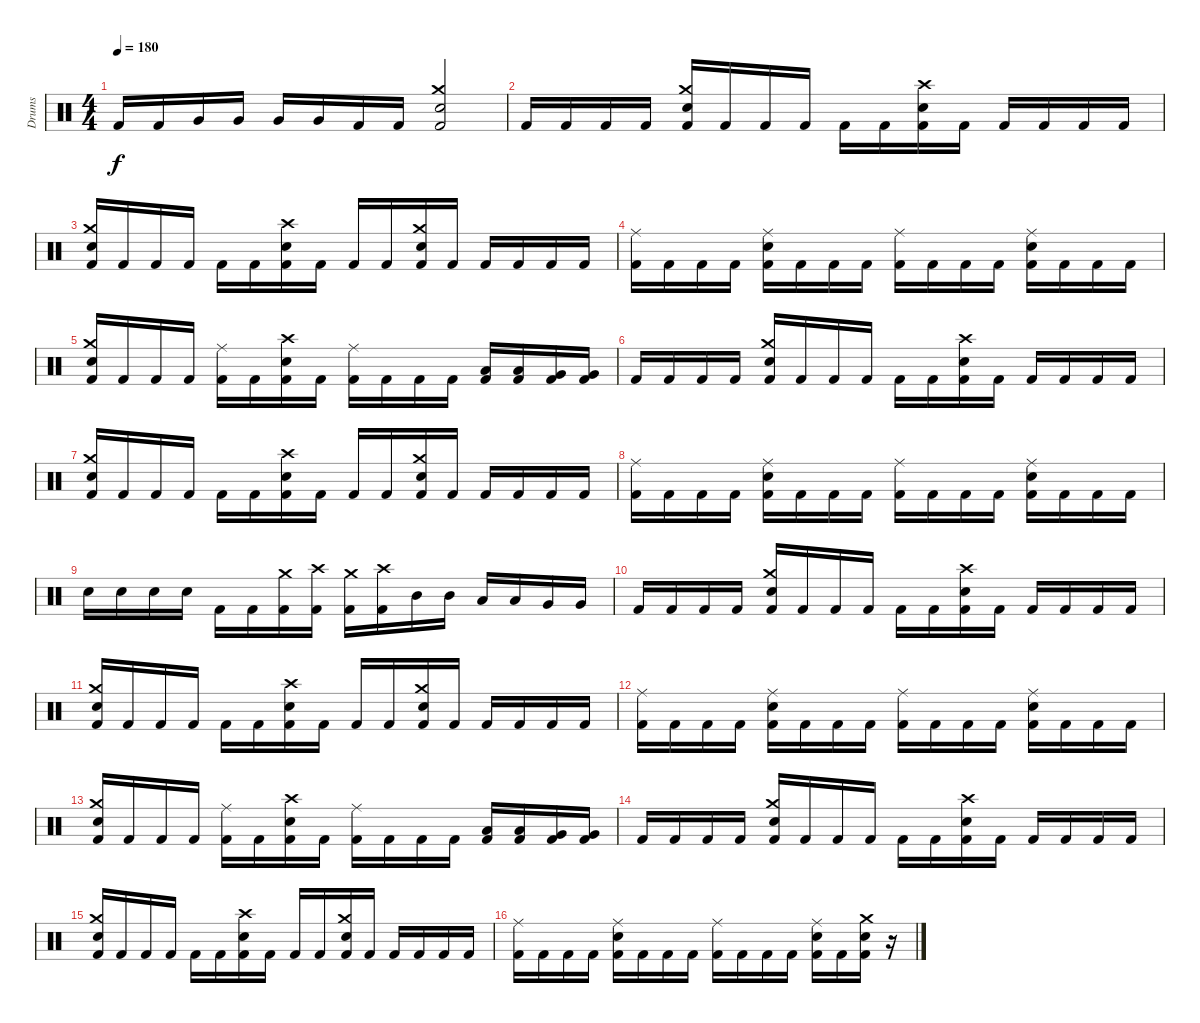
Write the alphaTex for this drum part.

\track ("Drums" "Drums") {instrument percussion}
\staff {score}
\articulation defaults
\ts (4 4)
\tempo 180
\clef neutral
\ks c "Kick (hit) 2".16{dy f} "Kick (hit) 2".16 "Very Low Tom (hit)".16 "Very Low Tom (hit)".16 "Very Low Tom (hit)".16 "Very Low Tom (hit)".16 "Kick (hit) 2".16 "Kick (hit) 2".16
("Crash medium (hit)" "Snare (hit) 2" "Kick (hit) 2").2 |
"Kick (hit) 2".16 "Kick (hit) 2".16 "Kick (hit) 2".16 "Kick (hit) 2".16 ("Crash medium (hit)" "Snare (hit) 2" "Kick (hit) 2").16 "Kick (hit) 2".16 "Kick (hit) 2".16 "Kick (hit) 2".16 "Kick (hit) 2".16 "Kick (hit) 2".16 ("Crash high (hit)" "Snare (hit) 2" "Kick (hit) 2").16 "Kick (hit) 2".16 "Kick (hit) 2".16 "Kick (hit) 2".16 "Kick (hit) 2".16 "Kick (hit) 2".16 |
("Crash medium (hit)" "Snare (hit) 2" "Kick (hit) 2").16 "Kick (hit) 2".16 "Kick (hit) 2".16 "Kick (hit) 2".16 "Kick (hit) 2".16 "Kick (hit) 2".16 ("Crash high (hit)" "Snare (hit) 2" "Kick (hit) 2").16 "Kick (hit) 2".16 "Kick (hit) 2".16 "Kick (hit) 2".16 ("Crash medium (hit)" "Snare (hit) 2" "Kick (hit) 2").16 "Kick (hit) 2".16 "Kick (hit) 2".16 "Kick (hit) 2".16 "Kick (hit) 2".16 "Kick (hit) 2".16 |
("Ride (middle)" "Kick (hit) 2").16 "Kick (hit) 2".16 "Kick (hit) 2".16 "Kick (hit) 2".16 ("Ride (middle)" "Snare (hit) 2" "Kick (hit) 2").16 "Kick (hit) 2".16 "Kick (hit) 2".16 "Kick (hit) 2".16 ("Ride (middle)" "Kick (hit) 2").16 "Kick (hit) 2".16 "Kick (hit) 2".16 "Kick (hit) 2".16 ("Ride (middle)" "Snare (hit) 2" "Kick (hit) 2").16 "Kick (hit) 2".16 "Kick (hit) 2".16 "Kick (hit) 2".16 |
("Crash medium (hit)" "Snare (hit) 2" "Kick (hit) 2").16 "Kick (hit) 2".16 "Kick (hit) 2".16 "Kick (hit) 2".16 ("Ride (middle)" "Kick (hit) 2").16 "Kick (hit) 2".16 ("Crash high (hit)" "Snare (hit) 2" "Kick (hit) 2").16 "Kick (hit) 2".16 ("Ride (middle)" "Kick (hit) 2").16 "Kick (hit) 2".16 "Kick (hit) 2".16 "Kick (hit) 2".16 ("Low Tom (hit)" "Kick (hit) 2").16 ("Low Tom (hit)" "Kick (hit) 2").16 ("Very Low Tom (hit)" "Kick (hit) 2").16 ("Very Low Tom (hit)" "Kick (hit) 2").16 |
"Kick (hit) 2".16 "Kick (hit) 2".16 "Kick (hit) 2".16 "Kick (hit) 2".16 ("Crash medium (hit)" "Snare (hit) 2" "Kick (hit) 2").16 "Kick (hit) 2".16 "Kick (hit) 2".16 "Kick (hit) 2".16 "Kick (hit) 2".16 "Kick (hit) 2".16 ("Crash high (hit)" "Snare (hit) 2" "Kick (hit) 2").16 "Kick (hit) 2".16 "Kick (hit) 2".16 "Kick (hit) 2".16 "Kick (hit) 2".16 "Kick (hit) 2".16 |
("Crash medium (hit)" "Snare (hit) 2" "Kick (hit) 2").16 "Kick (hit) 2".16 "Kick (hit) 2".16 "Kick (hit) 2".16 "Kick (hit) 2".16 "Kick (hit) 2".16 ("Crash high (hit)" "Snare (hit) 2" "Kick (hit) 2").16 "Kick (hit) 2".16 "Kick (hit) 2".16 "Kick (hit) 2".16 ("Crash medium (hit)" "Snare (hit) 2" "Kick (hit) 2").16 "Kick (hit) 2".16 "Kick (hit) 2".16 "Kick (hit) 2".16 "Kick (hit) 2".16 "Kick (hit) 2".16 |
("Ride (middle)" "Kick (hit) 2").16 "Kick (hit) 2".16 "Kick (hit) 2".16 "Kick (hit) 2".16 ("Ride (middle)" "Snare (hit) 2" "Kick (hit) 2").16 "Kick (hit) 2".16 "Kick (hit) 2".16 "Kick (hit) 2".16 ("Ride (middle)" "Kick (hit) 2").16 "Kick (hit) 2".16 "Kick (hit) 2".16 "Kick (hit) 2".16 ("Ride (middle)" "Snare (hit) 2" "Kick (hit) 2").16 "Kick (hit) 2".16 "Kick (hit) 2".16 "Kick (hit) 2".16 |
"Snare (hit) 2".16 "Snare (hit) 2".16 "Snare (hit) 2".16 "Snare (hit) 2".16 "Kick (hit) 2".16 "Kick (hit) 2".16 ("Crash medium (hit)" "Kick (hit) 2").16 ("Crash high (hit)" "Kick (hit) 2").16 ("Crash medium (hit)" "Kick (hit) 2").16 ("Crash high (hit)" "Kick (hit) 2").16 "Mid Tom (hit)".16 "Mid Tom (hit)".16 "Low Tom (hit)".16 "Low Tom (hit)".16 "Very Low Tom (hit)".16 "Very Low Tom (hit)".16 |
"Kick (hit) 2".16 "Kick (hit) 2".16 "Kick (hit) 2".16 "Kick (hit) 2".16 ("Crash medium (hit)" "Snare (hit) 2" "Kick (hit) 2").16 "Kick (hit) 2".16 "Kick (hit) 2".16 "Kick (hit) 2".16 "Kick (hit) 2".16 "Kick (hit) 2".16 ("Crash high (hit)" "Snare (hit) 2" "Kick (hit) 2").16 "Kick (hit) 2".16 "Kick (hit) 2".16 "Kick (hit) 2".16 "Kick (hit) 2".16 "Kick (hit) 2".16 |
("Crash medium (hit)" "Snare (hit) 2" "Kick (hit) 2").16 "Kick (hit) 2".16 "Kick (hit) 2".16 "Kick (hit) 2".16 "Kick (hit) 2".16 "Kick (hit) 2".16 ("Crash high (hit)" "Snare (hit) 2" "Kick (hit) 2").16 "Kick (hit) 2".16 "Kick (hit) 2".16 "Kick (hit) 2".16 ("Crash medium (hit)" "Snare (hit) 2" "Kick (hit) 2").16 "Kick (hit) 2".16 "Kick (hit) 2".16 "Kick (hit) 2".16 "Kick (hit) 2".16 "Kick (hit) 2".16 |
("Ride (middle)" "Kick (hit) 2").16 "Kick (hit) 2".16 "Kick (hit) 2".16 "Kick (hit) 2".16 ("Ride (middle)" "Snare (hit) 2" "Kick (hit) 2").16 "Kick (hit) 2".16 "Kick (hit) 2".16 "Kick (hit) 2".16 ("Ride (middle)" "Kick (hit) 2").16 "Kick (hit) 2".16 "Kick (hit) 2".16 "Kick (hit) 2".16 ("Ride (middle)" "Snare (hit) 2" "Kick (hit) 2").16 "Kick (hit) 2".16 "Kick (hit) 2".16 "Kick (hit) 2".16 |
("Crash medium (hit)" "Snare (hit) 2" "Kick (hit) 2").16 "Kick (hit) 2".16 "Kick (hit) 2".16 "Kick (hit) 2".16 ("Ride (middle)" "Kick (hit) 2").16 "Kick (hit) 2".16 ("Crash high (hit)" "Snare (hit) 2" "Kick (hit) 2").16 "Kick (hit) 2".16 ("Ride (middle)" "Kick (hit) 2").16 "Kick (hit) 2".16 "Kick (hit) 2".16 "Kick (hit) 2".16 ("Low Tom (hit)" "Kick (hit) 2").16 ("Low Tom (hit)" "Kick (hit) 2").16 ("Very Low Tom (hit)" "Kick (hit) 2").16 ("Very Low Tom (hit)" "Kick (hit) 2").16 |
"Kick (hit) 2".16 "Kick (hit) 2".16 "Kick (hit) 2".16 "Kick (hit) 2".16 ("Crash medium (hit)" "Snare (hit) 2" "Kick (hit) 2").16 "Kick (hit) 2".16 "Kick (hit) 2".16 "Kick (hit) 2".16 "Kick (hit) 2".16 "Kick (hit) 2".16 ("Crash high (hit)" "Snare (hit) 2" "Kick (hit) 2").16 "Kick (hit) 2".16 "Kick (hit) 2".16 "Kick (hit) 2".16 "Kick (hit) 2".16 "Kick (hit) 2".16 |
("Crash medium (hit)" "Snare (hit) 2" "Kick (hit) 2").16 "Kick (hit) 2".16 "Kick (hit) 2".16 "Kick (hit) 2".16 "Kick (hit) 2".16 "Kick (hit) 2".16 ("Crash high (hit)" "Snare (hit) 2" "Kick (hit) 2").16 "Kick (hit) 2".16 "Kick (hit) 2".16 "Kick (hit) 2".16 ("Crash medium (hit)" "Snare (hit) 2" "Kick (hit) 2").16 "Kick (hit) 2".16 "Kick (hit) 2".16 "Kick (hit) 2".16 "Kick (hit) 2".16 "Kick (hit) 2".16 |
("Ride (middle)" "Kick (hit) 2").16 "Kick (hit) 2".16 "Kick (hit) 2".16 "Kick (hit) 2".16 ("Ride (middle)" "Snare (hit) 2" "Kick (hit) 2").16 "Kick (hit) 2".16 "Kick (hit) 2".16 "Kick (hit) 2".16 ("Ride (middle)" "Kick (hit) 2").16 "Kick (hit) 2".16 "Kick (hit) 2".16 "Kick (hit) 2".16 ("Ride (middle)" "Snare (hit) 2" "Kick (hit) 2").16 "Kick (hit) 2".16 ("Crash medium (hit)" "Snare (hit) 2" "Kick (hit) 2").16 r.16
